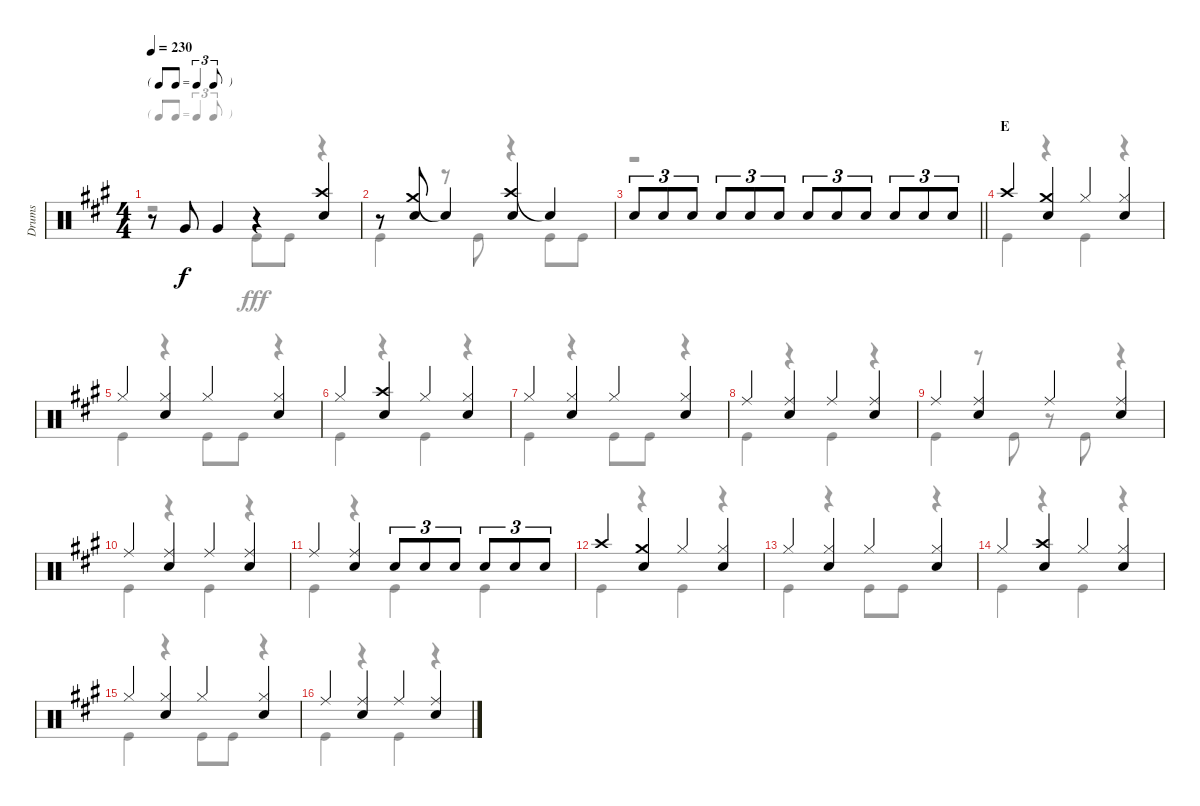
\track ("Drums" "Drums") {instrument percussion}
\staff {score}
\articulation defaults
\voice
\ts (4 4)
\tf triplet8th
\tempo 230
\clef neutral
\ks a
r.8{dy f} "Very Low Tom (hit)".8 "Very Low Tom (hit)".4 r.4 ("Crash high (hit)" "Snare (hit) 2").4 |
r.8 ("Crash medium (hit)" "Snare (hit) 2").8 "Snare (hit)"{t}.4 ("Crash high (hit)" "Snare (hit) 2").4 "Snare (hit)"{t}.4 |
\barLineRight lightlight "Snare (hit) 2".8{tu (3 2)} "Snare (hit) 2".8{tu (3 2)} "Snare (hit) 2".8{tu (3 2)} "Snare (hit) 2".8{tu (3 2)} "Snare (hit) 2".8{tu (3 2)} "Snare (hit) 2".8{tu (3 2)} "Snare (hit) 2".8{tu (3 2)} "Snare (hit) 2".8{tu (3 2)} "Snare (hit) 2".8{tu (3 2)} "Snare (hit) 2".8{tu (3 2)} "Snare (hit) 2".8{tu (3 2)} "Snare (hit) 2".8{tu (3 2)}
|
\section ("" "E")
"Crash high (hit)".4 ("Crash medium (hit)" "Snare (hit) 2").4 "Hi-Hat (closed)".4 ("Hi-Hat (closed)" "Snare (hit) 2").4 |
"Hi-Hat (closed)".4 ("Hi-Hat (closed)" "Snare (hit) 2").4 "Hi-Hat (closed)".4 ("Hi-Hat (closed)" "Snare (hit) 2").4 |
"Hi-Hat (closed)".4 ("Crash high (hit)" "Snare (hit) 2").4 "Hi-Hat (closed)".4 ("Hi-Hat (closed)" "Snare (hit) 2").4 |
"Hi-Hat (closed)".4 ("Hi-Hat (closed)" "Snare (hit) 2").4 "Hi-Hat (closed)".4 ("Hi-Hat (closed)" "Snare (hit) 2").4 |
"Ride (middle)".4 ("Ride (middle)" "Snare (hit) 2").4 "Ride (middle)".4 ("Ride (middle)" "Snare (hit) 2").4 |
"Ride (middle)".4 ("Ride (middle)" "Snare (hit) 2").4 "Ride (middle)".4 ("Ride (middle)" "Snare (hit) 2").4 |
"Ride (middle)".4 ("Ride (middle)" "Snare (hit) 2").4 "Ride (middle)".4 ("Ride (middle)" "Snare (hit) 2").4 |
"Ride (middle)".4 ("Ride (middle)" "Snare (hit) 2").4 "Snare (hit) 2".8{tu (3 2)} "Snare (hit) 2".8{tu (3 2)} "Snare (hit) 2".8{tu (3 2)} "Snare (hit) 2".8{tu (3 2)} "Snare (hit) 2".8{tu (3 2)} "Snare (hit) 2".8{tu (3 2)} |
"Crash high (hit)".4 ("Crash medium (hit)" "Snare (hit) 2").4 "Hi-Hat (closed)".4 ("Hi-Hat (closed)" "Snare (hit) 2").4 |
"Hi-Hat (closed)".4 ("Hi-Hat (closed)" "Snare (hit) 2").4 "Hi-Hat (closed)".4 ("Hi-Hat (closed)" "Snare (hit) 2").4 |
"Hi-Hat (closed)".4 ("Crash high (hit)" "Snare (hit) 2").4 "Hi-Hat (closed)".4 ("Hi-Hat (closed)" "Snare (hit) 2").4 |
"Hi-Hat (closed)".4 ("Hi-Hat (closed)" "Snare (hit) 2").4 "Hi-Hat (closed)".4 ("Hi-Hat (closed)" "Snare (hit) 2").4 |
"Ride (middle)".4 ("Ride (middle)" "Snare (hit) 2").4 "Ride (middle)".4 ("Ride (middle)" "Snare (hit) 2").4
\voice
\clef neutral
\ottava regular
\simile none
\ks a
r.2{dy fff} "Kick (hit)".8 "Kick (hit)".8 r.4 |
"Kick (hit)".4 r.8 "Kick (hit)".8 r.4 "Kick (hit)".8 "Kick (hit)".8 |
\barLineRight lightlight
r.1 |
"Kick (hit)".4 r.4 "Kick (hit)".4 r.4 |
"Kick (hit)".4 r.4 "Kick (hit)".8 "Kick (hit)".8 r.4 |
"Kick (hit)".4 r.4 "Kick (hit)".4 r.4 |
"Kick (hit)".4 r.4 "Kick (hit)".8 "Kick (hit)".8 r.4 |
"Kick (hit)".4 r.4 "Kick (hit)".4 r.4 |
"Kick (hit)".4 r.8 "Kick (hit)".8 r.8 "Kick (hit)".8 r.4 |
"Kick (hit)".4 r.4 "Kick (hit)".4 r.4 |
"Kick (hit)".4 r.4 "Kick (hit)".4 "Kick (hit)".4 |
"Kick (hit)".4 r.4 "Kick (hit)".4 r.4 |
"Kick (hit)".4 r.4 "Kick (hit)".8 "Kick (hit)".8 r.4 |
"Kick (hit)".4 r.4 "Kick (hit)".4 r.4 |
"Kick (hit)".4 r.4 "Kick (hit)".8 "Kick (hit)".8 r.4 |
"Kick (hit)".4 r.4 "Kick (hit)".4 r.4
